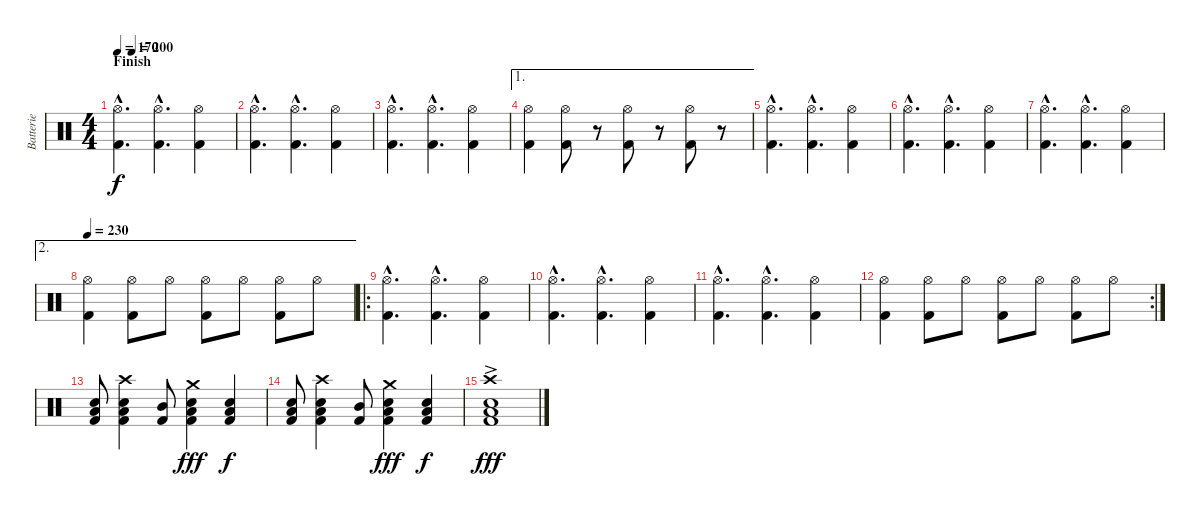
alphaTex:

\track ("Batterie" "Batterie") {instrument percussion}
\staff {score}
\articulation defaults
\ts (4 4)
\section ("" "Finish")
\tempo 170
\tempo (200 0.125)
\clef neutral
\ks c
("Hi-Hat (open)"{hac} "Kick (hit) 2"{hac}).4{d dy f volume 16} ("Hi-Hat (open)"{hac} "Kick (hit) 2"{hac}).4{d} ("Hi-Hat (open)" "Kick (hit) 2").4 |
("Hi-Hat (open)"{hac} "Kick (hit) 2"{hac}).4{d} ("Hi-Hat (open)"{hac} "Kick (hit) 2"{hac}).4{d} ("Hi-Hat (open)" "Kick (hit) 2").4 |
("Hi-Hat (open)"{hac} "Kick (hit) 2"{hac}).4{d} ("Hi-Hat (open)"{hac} "Kick (hit) 2"{hac}).4{d} ("Hi-Hat (open)" "Kick (hit) 2").4 |
\ae 1
("Hi-Hat (open)" "Kick (hit) 2").4 ("Hi-Hat (open)" "Kick (hit) 2").8 r.8 ("Hi-Hat (open)" "Kick (hit) 2").8 r.8 ("Hi-Hat (open)" "Kick (hit) 2").8 r.8 |
("Hi-Hat (open)"{hac} "Kick (hit) 2"{hac}).4{d} ("Hi-Hat (open)"{hac} "Kick (hit) 2"{hac}).4{d} ("Hi-Hat (open)" "Kick (hit) 2").4 |
("Hi-Hat (open)"{hac} "Kick (hit) 2"{hac}).4{d} ("Hi-Hat (open)"{hac} "Kick (hit) 2"{hac}).4{d} ("Hi-Hat (open)" "Kick (hit) 2").4 |
("Hi-Hat (open)"{hac} "Kick (hit) 2"{hac}).4{d} ("Hi-Hat (open)"{hac} "Kick (hit) 2"{hac}).4{d} ("Hi-Hat (open)" "Kick (hit) 2").4 |
\ae 2
\tempo 230
("Hi-Hat (open)" "Kick (hit) 2").4 ("Hi-Hat (open)" "Kick (hit) 2").8 "Hi-Hat (open)".8 ("Hi-Hat (open)" "Kick (hit) 2").8 "Hi-Hat (open)".8 ("Hi-Hat (open)" "Kick (hit) 2").8 "Hi-Hat (open)".8 |
\ro
("Hi-Hat (open)"{hac} "Kick (hit) 2"{hac}).4{d} ("Hi-Hat (open)"{hac} "Kick (hit) 2"{hac}).4{d} ("Hi-Hat (open)" "Kick (hit) 2").4 |
("Hi-Hat (open)"{hac} "Kick (hit) 2"{hac}).4{d} ("Hi-Hat (open)"{hac} "Kick (hit) 2"{hac}).4{d} ("Hi-Hat (open)" "Kick (hit) 2").4 |
("Hi-Hat (open)"{hac} "Kick (hit) 2"{hac}).4{d} ("Hi-Hat (open)"{hac} "Kick (hit) 2"{hac}).4{d} ("Hi-Hat (open)" "Kick (hit) 2").4 |
\rc 2
("Hi-Hat (open)" "Kick (hit) 2").4 ("Hi-Hat (open)" "Kick (hit) 2").8 "Hi-Hat (open)".8 ("Hi-Hat (open)" "Kick (hit) 2").8 "Hi-Hat (open)".8 ("Hi-Hat (open)" "Kick (hit) 2").8 "Hi-Hat (open)".8 |
("Low Floor Tom (hit)" "Snare (hit) 2" "Kick (hit) 2").8 ("Crash high (hit)" "Low Floor Tom (hit)" "Snare (hit) 2" "Kick (hit) 2").4 ("Mid Tom (hit)" "Kick (hit) 2").8 ("Crash medium (hit)" "Low Floor Tom (hit)" "Snare (hit) 2" "Kick (hit) 2").4{dy fff} ("Low Floor Tom (hit)" "Snare (hit) 2" "Kick (hit) 2").4{dy f} |
("Low Floor Tom (hit)" "Snare (hit) 2" "Kick (hit) 2").8 ("Crash high (hit)" "Low Floor Tom (hit)" "Snare (hit) 2" "Kick (hit) 2").4 ("Mid Tom (hit)" "Kick (hit) 2").8 ("Crash medium (hit)" "Low Floor Tom (hit)" "Snare (hit) 2" "Kick (hit) 2").4{dy fff} ("Low Floor Tom (hit)" "Snare (hit) 2" "Kick (hit) 2").4{dy f} |
("Crash high (hit)"{ac} "Snare (hit) 2" "Low Floor Tom (hit)" "Kick (hit) 2").1{dy fff}
